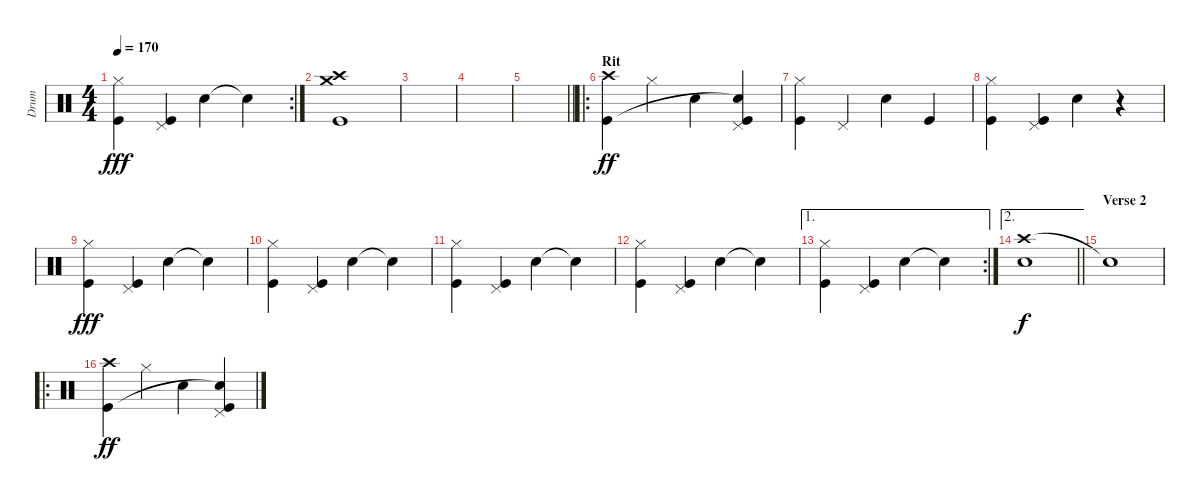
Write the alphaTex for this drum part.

\track ("Drum" "Drum") {instrument percussion}
\staff {score}
\articulation defaults
\rc 2
\ts (4 4)
\tempo 170
\clef neutral
\ks c
("Hi-Hat (closed)" "Kick (hit)").4{dy fff} ("Pedal Hi-Hat (hit)" "Kick (hit)").4 "Snare (hit) 2".4 "Snare (hit)"{t}.4 |
("Crash medium (hit)" "Crash high (hit)" "Kick (hit)").1 |
|
|
\barLineRight lightlight
|
\ro
\section ("" "Rit")
("Crash high (hit)" "Kick (hit)").4{dy ff} "Hi-Hat (closed)".4 "Snare (hit) 2".4 ("Pedal Hi-Hat (hit)" "Snare (hit)"{t} "Kick (hit)").4 |
("Hi-Hat (closed)" "Kick (hit)").4 "Pedal Hi-Hat (hit)".4 "Snare (hit) 2".4 "Kick (hit)".4 |
("Hi-Hat (closed)" "Kick (hit)").4 ("Pedal Hi-Hat (hit)" "Kick (hit)").4 "Snare (hit) 2".4 r.4 |
("Hi-Hat (closed)" "Kick (hit)").4{dy fff} ("Pedal Hi-Hat (hit)" "Kick (hit)").4 "Snare (hit) 2".4 "Snare (hit)"{t}.4 |
("Hi-Hat (closed)" "Kick (hit)").4 ("Pedal Hi-Hat (hit)" "Kick (hit)").4 "Snare (hit) 2".4 "Snare (hit)"{t}.4 |
("Hi-Hat (closed)" "Kick (hit)").4 ("Pedal Hi-Hat (hit)" "Kick (hit)").4 "Snare (hit) 2".4 "Snare (hit)"{t}.4 |
("Hi-Hat (closed)" "Kick (hit)").4 ("Pedal Hi-Hat (hit)" "Kick (hit)").4 "Snare (hit) 2".4 "Snare (hit)"{t}.4 |
\ae 1
\rc 2
("Hi-Hat (closed)" "Kick (hit)").4 ("Pedal Hi-Hat (hit)" "Kick (hit)").4 "Snare (hit) 2".4 "Snare (hit)"{t}.4 |
\ae 2
\barLineRight lightlight
("Crash high (hit)" "Snare (hit) 2").1{dy f} |
\section ("" "Verse 2")
"Snare (hit)"{t}.1 |
\ro
("Crash high (hit)" "Kick (hit)").4{dy ff} "Hi-Hat (closed)".4 "Snare (hit) 2".4 ("Pedal Hi-Hat (hit)" "Snare (hit)"{t} "Kick (hit)").4
